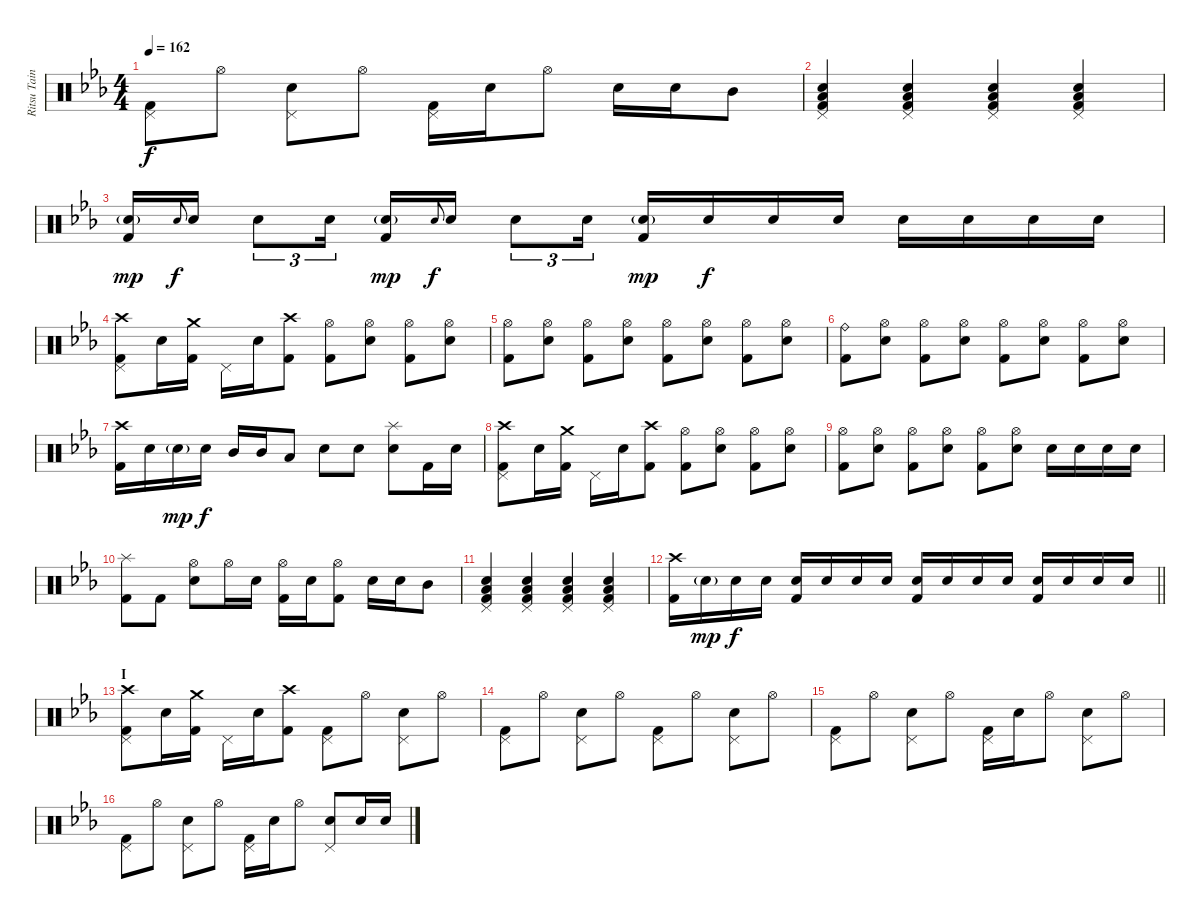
\track ("Ritsu Tainaka" "Ritsu Tain") {instrument percussion}
\staff {score}
\articulation defaults
\ts (4 4)
\tempo 162
\clef neutral
\ks eb
("Pedal Hi-Hat (hit)" "Kick (hit) 2").8{dy f} "Hi-Hat (open)".8 ("Pedal Hi-Hat (hit)" "Electric Snare (hit)").8 "Hi-Hat (open)".8 ("Pedal Hi-Hat (hit)" "Kick (hit) 2").16 "Electric Snare (hit)".16 "Hi-Hat (open)".8 "Electric Snare (hit)".16 "Electric Snare (hit)".16 "Mid Tom (hit)".8 |
("Pedal Hi-Hat (hit)" "Electric Snare (hit)" "Low Floor Tom (hit)" "Kick (hit) 2").4 ("Pedal Hi-Hat (hit)" "Electric Snare (hit)" "Low Floor Tom (hit)" "Kick (hit) 2").4 ("Pedal Hi-Hat (hit)" "Electric Snare (hit)" "Low Floor Tom (hit)" "Kick (hit) 2").4 ("Pedal Hi-Hat (hit)" "Electric Snare (hit)" "Low Floor Tom (hit)" "Kick (hit) 2").4 |
("Electric Snare (hit)"{g} "Kick (hit) 2").16{dy mp} "Electric Snare (hit)".8{gr onbeat dy f} "Electric Snare (hit)".16 "Electric Snare (hit)".8{tu (3 2)} "Electric Snare (hit)".16{tu (3 2)} ("Electric Snare (hit)"{g} "Kick (hit) 2").16{dy mp} "Electric Snare (hit)".8{gr onbeat dy f} "Electric Snare (hit)".16 "Electric Snare (hit)".8{tu (3 2)} "Electric Snare (hit)".16{tu (3 2)} ("Electric Snare (hit)"{g} "Kick (hit) 2").16{dy mp} "Electric Snare (hit)".16{dy f} "Electric Snare (hit)".16 "Electric Snare (hit)".16 "Electric Snare (hit)".16 "Electric Snare (hit)".16 "Electric Snare (hit)".16 "Electric Snare (hit)".16 |
("Crash high (hit)" "Pedal Hi-Hat (hit)" "Kick (hit) 2").8 "Electric Snare (hit)".16 ("Crash medium (hit)" "Kick (hit) 2").16 "Pedal Hi-Hat (hit)".16 "Electric Snare (hit)".16 ("Crash high (hit)" "Kick (hit) 2").8 ("Hi-Hat (open)" "Kick (hit) 2").8 ("Hi-Hat (open)" "Electric Snare (hit)").8 ("Hi-Hat (open)" "Kick (hit) 2").8 ("Hi-Hat (open)" "Electric Snare (hit)").8 |
("Hi-Hat (open)" "Kick (hit) 2").8 ("Hi-Hat (open)" "Electric Snare (hit)").8 ("Hi-Hat (open)" "Kick (hit) 2").8 ("Hi-Hat (open)" "Electric Snare (hit)").8 ("Hi-Hat (open)" "Kick (hit) 2").8 ("Hi-Hat (open)" "Electric Snare (hit)").8 ("Hi-Hat (open)" "Kick (hit) 2").8 ("Hi-Hat (open)" "Electric Snare (hit)").8 |
("Ride (bell)" "Kick (hit) 2").8 ("Hi-Hat (open)" "Electric Snare (hit)").8 ("Hi-Hat (open)" "Kick (hit) 2").8 ("Hi-Hat (open)" "Electric Snare (hit)").8 ("Hi-Hat (open)" "Kick (hit) 2").8 ("Hi-Hat (open)" "Electric Snare (hit)").8 ("Hi-Hat (open)" "Kick (hit) 2").8 ("Hi-Hat (open)" "Electric Snare (hit)").8 |
("Crash high (hit)" "Kick (hit) 2").16 "Electric Snare (hit)".16 "Electric Snare (hit)"{g}.16{dy mp} "Electric Snare (hit)".16{dy f} "Mid Tom (hit)".16 "Mid Tom (hit)".16 "Low Tom (hit)".8 "Electric Snare (hit)".8 "Electric Snare (hit)".8 ("Splash (hit)" "Electric Snare (hit)").8 "Kick (hit) 2".16 "Electric Snare (hit)".16 |
("Crash high (hit)" "Pedal Hi-Hat (hit)" "Kick (hit) 2").8 "Electric Snare (hit)".16 ("Crash medium (hit)" "Kick (hit) 2").16 "Pedal Hi-Hat (hit)".16 "Electric Snare (hit)".16 ("Crash high (hit)" "Kick (hit) 2").8 ("Hi-Hat (open)" "Kick (hit) 2").8 ("Hi-Hat (open)" "Electric Snare (hit)").8 ("Hi-Hat (open)" "Kick (hit) 2").8 ("Hi-Hat (open)" "Electric Snare (hit)").8 |
("Hi-Hat (open)" "Kick (hit) 2").8 ("Hi-Hat (open)" "Electric Snare (hit)").8 ("Hi-Hat (open)" "Kick (hit) 2").8 ("Hi-Hat (open)" "Electric Snare (hit)").8 ("Hi-Hat (open)" "Kick (hit) 2").8 ("Hi-Hat (open)" "Electric Snare (hit)").8 "Electric Snare (hit)".16 "Electric Snare (hit)".16 "Electric Snare (hit)".16 "Electric Snare (hit)".16 |
("Splash (hit)" "Kick (hit) 2").8 "Kick (hit) 2".8 ("Hi-Hat (open)" "Electric Snare (hit)").8 "Hi-Hat (open)".16 "Electric Snare (hit)".16 ("Hi-Hat (open)" "Kick (hit) 2").16 "Electric Snare (hit)".16 ("Hi-Hat (open)" "Kick (hit) 2").8 "Electric Snare (hit)".16 "Electric Snare (hit)".16 "Mid Tom (hit)".8 |
("Pedal Hi-Hat (hit)" "Electric Snare (hit)" "Low Floor Tom (hit)" "Kick (hit) 2").4 ("Pedal Hi-Hat (hit)" "Electric Snare (hit)" "Low Floor Tom (hit)" "Kick (hit) 2").4 ("Pedal Hi-Hat (hit)" "Electric Snare (hit)" "Low Floor Tom (hit)" "Kick (hit) 2").4 ("Pedal Hi-Hat (hit)" "Electric Snare (hit)" "Low Floor Tom (hit)" "Kick (hit) 2").4 |
\barLineRight lightlight
("Crash high (hit)" "Kick (hit) 2").16 "Electric Snare (hit)"{g}.16{dy mp} "Electric Snare (hit)".16{dy f} "Electric Snare (hit)".16 ("Electric Snare (hit)" "Kick (hit) 2").16 "Electric Snare (hit)".16 "Electric Snare (hit)".16 "Electric Snare (hit)".16 ("Electric Snare (hit)" "Kick (hit) 2").16 "Electric Snare (hit)".16 "Electric Snare (hit)".16 "Electric Snare (hit)".16 ("Electric Snare (hit)" "Kick (hit) 2").16 "Electric Snare (hit)".16 "Electric Snare (hit)".16 "Electric Snare (hit)".16 |
\section ("" "I")
("Crash high (hit)" "Pedal Hi-Hat (hit)" "Kick (hit) 2").8 "Electric Snare (hit)".16 ("Crash medium (hit)" "Kick (hit) 2").16 "Pedal Hi-Hat (hit)".16 "Electric Snare (hit)".16 ("Crash high (hit)" "Kick (hit) 2").8 ("Pedal Hi-Hat (hit)" "Kick (hit) 2").8 "Hi-Hat (open)".8 ("Pedal Hi-Hat (hit)" "Electric Snare (hit)").8 "Hi-Hat (open)".8 |
("Pedal Hi-Hat (hit)" "Kick (hit) 2").8 "Hi-Hat (open)".8 ("Pedal Hi-Hat (hit)" "Electric Snare (hit)").8 "Hi-Hat (open)".8 ("Pedal Hi-Hat (hit)" "Kick (hit) 2").8 "Hi-Hat (open)".8 ("Pedal Hi-Hat (hit)" "Electric Snare (hit)").8 "Hi-Hat (open)".8 |
("Pedal Hi-Hat (hit)" "Kick (hit) 2").8 "Hi-Hat (open)".8 ("Pedal Hi-Hat (hit)" "Electric Snare (hit)").8 "Hi-Hat (open)".8 ("Pedal Hi-Hat (hit)" "Kick (hit) 2").16 "Electric Snare (hit)".16 "Hi-Hat (open)".8 ("Pedal Hi-Hat (hit)" "Electric Snare (hit)").8 "Hi-Hat (open)".8 |
("Pedal Hi-Hat (hit)" "Kick (hit) 2").8 "Hi-Hat (open)".8 ("Pedal Hi-Hat (hit)" "Electric Snare (hit)").8 "Hi-Hat (open)".8 ("Pedal Hi-Hat (hit)" "Kick (hit) 2").16 "Electric Snare (hit)".16 "Hi-Hat (open)".8 ("Pedal Hi-Hat (hit)" "Electric Snare (hit)").8 "Electric Snare (hit)".16 "Electric Snare (hit)".16
